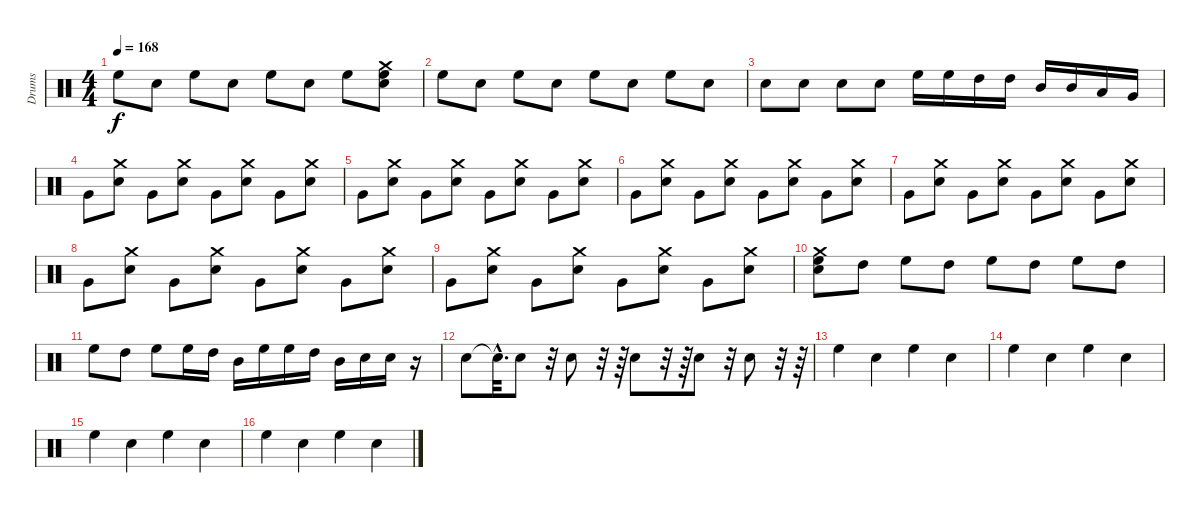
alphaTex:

\track ("Drums" "Drums") {instrument percussion}
\staff {score}
\articulation defaults
\ts (4 4)
\tempo 168
\clef neutral
\ks c "High Floor Tom (hit)".8{dy f} "Electric Snare (hit)".8 "High Floor Tom (hit)".8 "Electric Snare (hit)".8 "High Floor Tom (hit)".8 "Electric Snare (hit)".8 "High Floor Tom (hit)".8
("Electric Snare (hit)" "Crash medium (hit)" "High Floor Tom (hit)").8 |
"High Floor Tom (hit)".8 "Electric Snare (hit)".8 "High Floor Tom (hit)".8 "Electric Snare (hit)".8 "High Floor Tom (hit)".8 "Electric Snare (hit)".8 "High Floor Tom (hit)".8 "Electric Snare (hit)".8 |
"Electric Snare (hit)".8 "Electric Snare (hit)".8 "Electric Snare (hit)".8 "Electric Snare (hit)".8 "High Floor Tom (hit)".16 "High Floor Tom (hit)".16 "High Tom (hit)".16 "High Tom (hit)".16 "Mid Tom (hit)".16 "Mid Tom (hit)".16 "Low Tom (hit)".16 "Very Low Tom (hit)".16 |
"Very Low Tom (hit)".8 ("Crash medium (hit)" "Electric Snare (hit)").8 "Very Low Tom (hit)".8 ("Crash medium (hit)" "Electric Snare (hit)").8 "Very Low Tom (hit)".8 ("Crash medium (hit)" "Electric Snare (hit)").8 "Very Low Tom (hit)".8 ("Crash medium (hit)" "Electric Snare (hit)").8 |
"Very Low Tom (hit)".8 ("Electric Snare (hit)" "Crash medium (hit)").8 "Very Low Tom (hit)".8 ("Electric Snare (hit)" "Crash medium (hit)").8 "Very Low Tom (hit)".8 ("Electric Snare (hit)" "Crash medium (hit)").8 "Very Low Tom (hit)".8 ("Electric Snare (hit)" "Crash medium (hit)").8 |
"Very Low Tom (hit)".8 ("Crash medium (hit)" "Electric Snare (hit)").8 "Very Low Tom (hit)".8 ("Crash medium (hit)" "Electric Snare (hit)").8 "Very Low Tom (hit)".8 ("Crash medium (hit)" "Electric Snare (hit)").8 "Very Low Tom (hit)".8 ("Crash medium (hit)" "Electric Snare (hit)").8 |
"Very Low Tom (hit)".8 ("Electric Snare (hit)" "Crash medium (hit)").8 "Very Low Tom (hit)".8 ("Electric Snare (hit)" "Crash medium (hit)").8 "Very Low Tom (hit)".8 ("Electric Snare (hit)" "Crash medium (hit)").8 "Very Low Tom (hit)".8 ("Electric Snare (hit)" "Crash medium (hit)").8 |
"Very Low Tom (hit)".8 ("Crash medium (hit)" "Electric Snare (hit)").8 "Very Low Tom (hit)".8 ("Crash medium (hit)" "Electric Snare (hit)").8 "Very Low Tom (hit)".8 ("Crash medium (hit)" "Electric Snare (hit)").8 "Very Low Tom (hit)".8 ("Crash medium (hit)" "Electric Snare (hit)").8 |
"Very Low Tom (hit)".8 ("Electric Snare (hit)" "Crash medium (hit)").8 "Very Low Tom (hit)".8 ("Electric Snare (hit)" "Crash medium (hit)").8 "Very Low Tom (hit)".8 ("Electric Snare (hit)" "Crash medium (hit)").8 "Very Low Tom (hit)".8 ("Electric Snare (hit)" "Crash medium (hit)").8 |
("Electric Snare (hit)" "Crash medium (hit)" "High Floor Tom (hit)").8 "High Tom (hit)".8 "High Floor Tom (hit)".8 "High Tom (hit)".8 "High Floor Tom (hit)".8 "High Tom (hit)".8 "High Floor Tom (hit)".8 "High Tom (hit)".8 |
"High Floor Tom (hit)".8 "High Tom (hit)".8 "High Floor Tom (hit)".8 "High Floor Tom (hit)".16 "High Tom (hit)".16 "Mid Tom (hit)".16 "High Floor Tom (hit)".16 "High Floor Tom (hit)".16 "High Tom (hit)".16 "Mid Tom (hit)".16 "Electric Snare (hit)".16 "Electric Snare (hit)".16 r.16 |
"Electric Snare (hit)".8 "Snare (hit)"{hac t}.32{d} "Electric Snare (hit)".8 r.32 "Electric Snare (hit)".8 r.32 r.64 "Electric Snare (hit)".8 r.32 r.64 "Electric Snare (hit)".8 r.32 "Electric Snare (hit)".8 r.32 r.64 |
"High Floor Tom (hit)".4 "Electric Snare (hit)".4 "High Floor Tom (hit)".4 "Electric Snare (hit)".4 |
"High Floor Tom (hit)".4 "Electric Snare (hit)".4 "High Floor Tom (hit)".4 "Electric Snare (hit)".4 |
"High Floor Tom (hit)".4 "Electric Snare (hit)".4 "High Floor Tom (hit)".4 "Electric Snare (hit)".4 |
"High Floor Tom (hit)".4 "Electric Snare (hit)".4 "High Floor Tom (hit)".4 "Electric Snare (hit)".4
